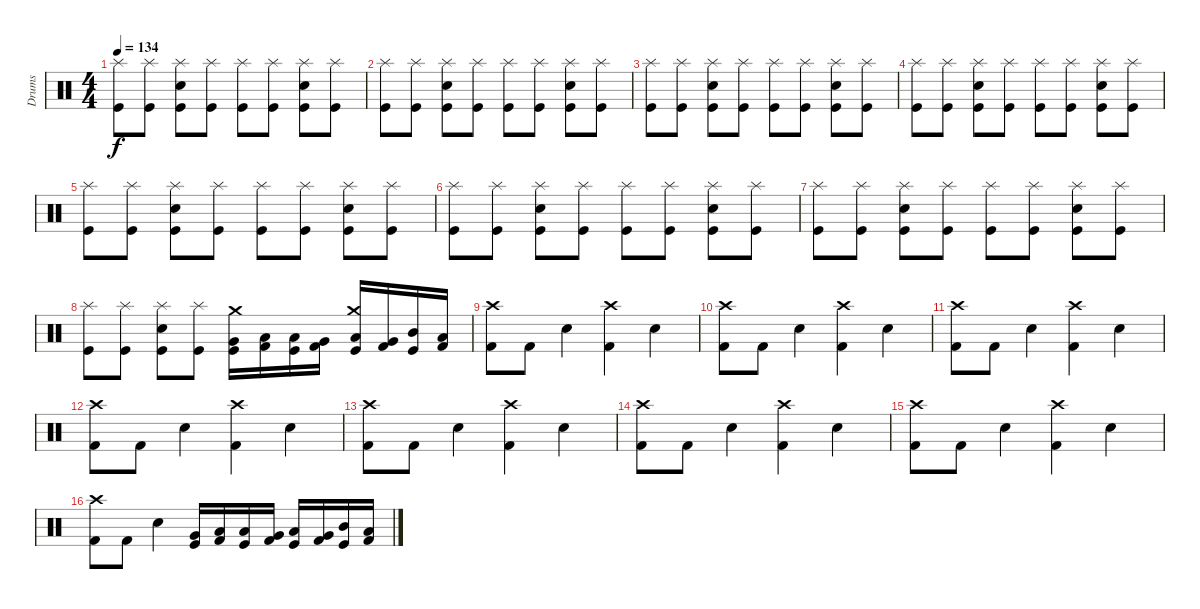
\track ("Drums" "Drums") {instrument percussion}
\staff {score}
\articulation defaults
\ts (4 4)
\tempo 134
\clef neutral
\ks c
("Kick (hit)" "Splash (hit)").8{dy f} ("Splash (hit)" "Kick (hit)").8 ("Splash (hit)" "Kick (hit)" "Electric Snare (hit)").8 ("Splash (hit)" "Kick (hit)").8 ("Kick (hit)" "Splash (hit)").8 ("Splash (hit)" "Kick (hit)").8 ("Splash (hit)" "Kick (hit)" "Electric Snare (hit)").8 ("Splash (hit)" "Kick (hit)").8 |
("Splash (hit)" "Kick (hit)").8 ("Splash (hit)" "Kick (hit)").8 ("Splash (hit)" "Kick (hit)" "Electric Snare (hit)").8 ("Splash (hit)" "Kick (hit)").8 ("Kick (hit)" "Splash (hit)").8 ("Splash (hit)" "Kick (hit)").8 ("Splash (hit)" "Kick (hit)" "Electric Snare (hit)").8 ("Splash (hit)" "Kick (hit)").8 |
("Splash (hit)" "Kick (hit)").8 ("Splash (hit)" "Kick (hit)").8 ("Splash (hit)" "Kick (hit)" "Electric Snare (hit)").8 ("Splash (hit)" "Kick (hit)").8 ("Kick (hit)" "Splash (hit)").8 ("Splash (hit)" "Kick (hit)").8 ("Splash (hit)" "Kick (hit)" "Electric Snare (hit)").8 ("Splash (hit)" "Kick (hit)").8 |
("Splash (hit)" "Kick (hit)").8 ("Splash (hit)" "Kick (hit)").8 ("Splash (hit)" "Kick (hit)" "Electric Snare (hit)").8 ("Splash (hit)" "Kick (hit)").8 ("Kick (hit)" "Splash (hit)").8 ("Splash (hit)" "Kick (hit)").8 ("Splash (hit)" "Kick (hit)" "Electric Snare (hit)").8 ("Splash (hit)" "Kick (hit)").8 |
("Splash (hit)" "Kick (hit)").8 ("Splash (hit)" "Kick (hit)").8 ("Splash (hit)" "Kick (hit)" "Electric Snare (hit)").8 ("Splash (hit)" "Kick (hit)").8 ("Kick (hit)" "Splash (hit)").8 ("Splash (hit)" "Kick (hit)").8 ("Splash (hit)" "Kick (hit)" "Electric Snare (hit)").8 ("Splash (hit)" "Kick (hit)").8 |
("Splash (hit)" "Kick (hit)").8 ("Splash (hit)" "Kick (hit)").8 ("Splash (hit)" "Kick (hit)" "Electric Snare (hit)").8 ("Splash (hit)" "Kick (hit)").8 ("Kick (hit)" "Splash (hit)").8 ("Splash (hit)" "Kick (hit)").8 ("Splash (hit)" "Kick (hit)" "Electric Snare (hit)").8 ("Splash (hit)" "Kick (hit)").8 |
("Splash (hit)" "Kick (hit)").8 ("Splash (hit)" "Kick (hit)").8 ("Splash (hit)" "Kick (hit)" "Electric Snare (hit)").8 ("Splash (hit)" "Kick (hit)").8 ("Kick (hit)" "Splash (hit)").8 ("Splash (hit)" "Kick (hit)").8 ("Splash (hit)" "Kick (hit)" "Electric Snare (hit)").8 ("Splash (hit)" "Kick (hit)").8 |
("Splash (hit)" "Kick (hit)").8 ("Splash (hit)" "Kick (hit)").8 ("Splash (hit)" "Kick (hit)" "Electric Snare (hit)").8 ("Splash (hit)" "Kick (hit)").8 ("Very Low Tom (hit)" "Kick (hit)" "Crash medium (hit)").16 ("Kick (hit) 2" "Low Floor Tom (hit)").16 ("Kick (hit)" "Low Tom (hit)").16 ("Kick (hit) 2" "Very Low Tom (hit)").16 ("Kick (hit)" "Low Tom (hit)" "Crash medium (hit)").16 ("Kick (hit) 2" "Very Low Tom (hit)").16 ("Kick (hit)" "Mid Tom (hit)").16 ("Kick (hit) 2" "Low Tom (hit)").16 |
("Crash high (hit)" "Kick (hit) 2").8 "Kick (hit) 2".8 "Electric Snare (hit)".4 ("Kick (hit) 2" "Crash high (hit)").4 "Electric Snare (hit)".4 |
("Kick (hit) 2" "Crash high (hit)").8 "Kick (hit) 2".8 "Electric Snare (hit)".4 ("Kick (hit) 2" "Crash high (hit)").4 "Electric Snare (hit)".4 |
("Crash high (hit)" "Kick (hit) 2").8 "Kick (hit) 2".8 "Electric Snare (hit)".4 ("Kick (hit) 2" "Crash high (hit)").4 "Electric Snare (hit)".4 |
("Kick (hit) 2" "Crash high (hit)").8 "Kick (hit) 2".8 "Electric Snare (hit)".4 ("Kick (hit) 2" "Crash high (hit)").4 "Electric Snare (hit)".4 |
("Crash high (hit)" "Kick (hit) 2").8 "Kick (hit) 2".8 "Electric Snare (hit)".4 ("Kick (hit) 2" "Crash high (hit)").4 "Electric Snare (hit)".4 |
("Kick (hit) 2" "Crash high (hit)").8 "Kick (hit) 2".8 "Electric Snare (hit)".4 ("Kick (hit) 2" "Crash high (hit)").4 "Electric Snare (hit)".4 |
("Crash high (hit)" "Kick (hit) 2").8 "Kick (hit) 2".8 "Electric Snare (hit)".4 ("Kick (hit) 2" "Crash high (hit)").4 "Electric Snare (hit)".4 |
("Kick (hit) 2" "Crash high (hit)").8 "Kick (hit) 2".8 "Electric Snare (hit)".4 ("Very Low Tom (hit)" "Kick (hit)").16 ("Kick (hit) 2" "Low Floor Tom (hit)").16 ("Kick (hit)" "Low Tom (hit)").16 ("Kick (hit) 2" "Very Low Tom (hit)").16 ("Kick (hit)" "Low Tom (hit)").16 ("Kick (hit) 2" "Very Low Tom (hit)").16 ("Kick (hit)" "Mid Tom (hit)").16 ("Kick (hit) 2" "Low Tom (hit)").16
